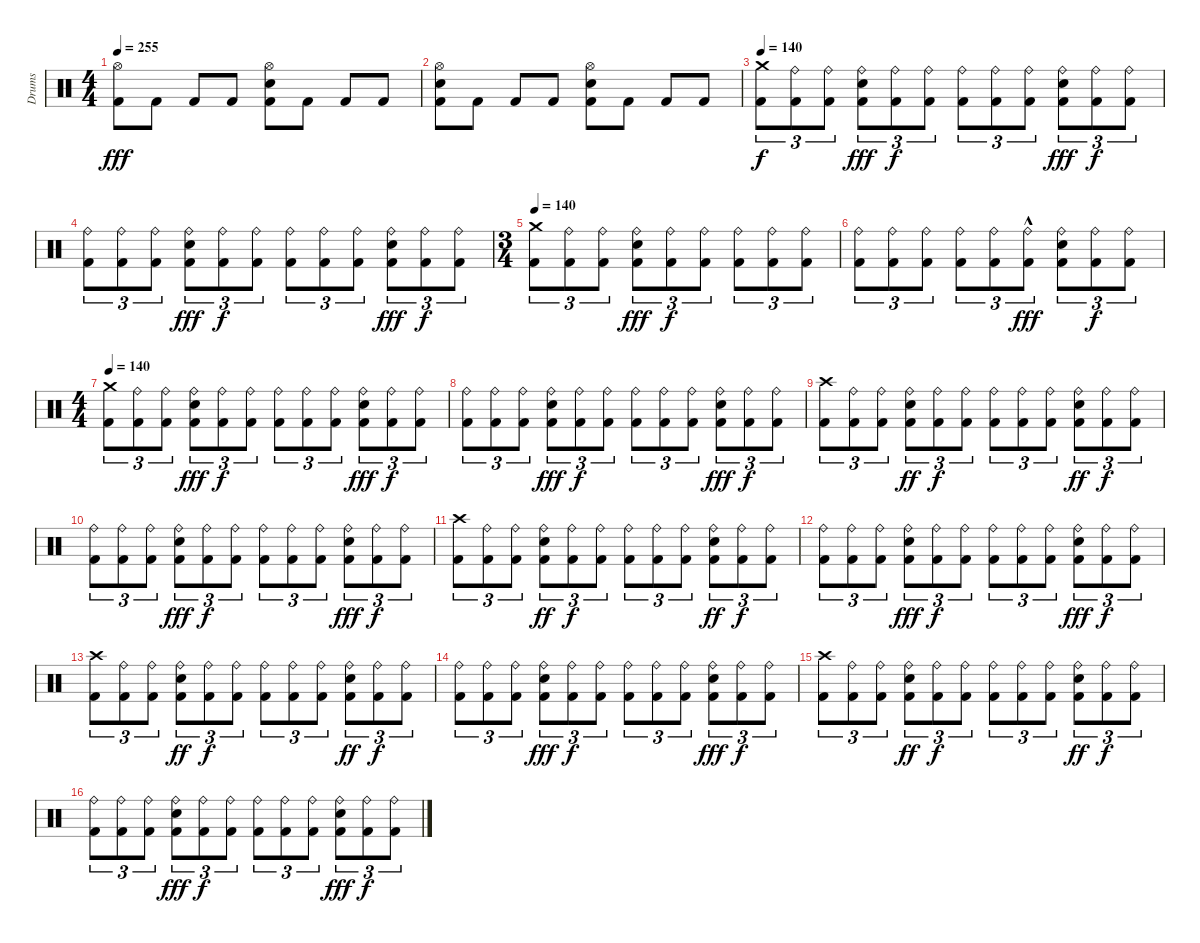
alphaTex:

\track ("Drums" "Drums") {instrument percussion}
\staff {score}
\articulation defaults
\ts (4 4)
\tempo 255
\clef neutral
\ks c
("Hi-Hat (open)" "Kick (hit) 2").8{dy fff} "Kick (hit) 2".8 "Kick (hit) 2".8 "Kick (hit) 2".8 ("Hi-Hat (open)" "Electric Snare (hit)" "Kick (hit) 2").8 "Kick (hit) 2".8 "Kick (hit) 2".8 "Kick (hit) 2".8 |
("Hi-Hat (open)" "Electric Snare (hit)" "Kick (hit) 2").8 "Kick (hit) 2".8 "Kick (hit) 2".8 "Kick (hit) 2".8 ("Hi-Hat (open)" "Electric Snare (hit)" "Kick (hit) 2").8 "Kick (hit) 2".8 "Kick (hit) 2".8 "Kick (hit) 2".8 |
\tempo 140
("Crash medium (hit)" "Kick (hit) 2").8{tu (3 2) dy f} ("Ride (bell)" "Kick (hit) 2").8{tu (3 2)} ("Ride (bell)" "Kick (hit) 2").8{tu (3 2)} ("Ride (bell)" "Electric Snare (hit)" "Kick (hit) 2").8{tu (3 2) dy fff} ("Ride (bell)" "Kick (hit) 2").8{tu (3 2) dy f} ("Ride (bell)" "Kick (hit) 2").8{tu (3 2)} ("Ride (bell)" "Kick (hit) 2").8{tu (3 2)} ("Ride (bell)" "Kick (hit) 2").8{tu (3 2)} ("Ride (bell)" "Kick (hit) 2").8{tu (3 2)} ("Ride (bell)" "Electric Snare (hit)" "Kick (hit) 2").8{tu (3 2) dy fff} ("Ride (bell)" "Kick (hit) 2").8{tu (3 2) dy f} ("Ride (bell)" "Kick (hit) 2").8{tu (3 2)} |
("Ride (bell)" "Kick (hit) 2").8{tu (3 2)} ("Ride (bell)" "Kick (hit) 2").8{tu (3 2)} ("Ride (bell)" "Kick (hit) 2").8{tu (3 2)} ("Ride (bell)" "Electric Snare (hit)" "Kick (hit) 2").8{tu (3 2) dy fff} ("Ride (bell)" "Kick (hit) 2").8{tu (3 2) dy f} ("Ride (bell)" "Kick (hit) 2").8{tu (3 2)} ("Ride (bell)" "Kick (hit) 2").8{tu (3 2)} ("Ride (bell)" "Kick (hit) 2").8{tu (3 2)} ("Ride (bell)" "Kick (hit) 2").8{tu (3 2)} ("Ride (bell)" "Electric Snare (hit)" "Kick (hit) 2").8{tu (3 2) dy fff} ("Ride (bell)" "Kick (hit) 2").8{tu (3 2) dy f} ("Ride (bell)" "Kick (hit) 2").8{tu (3 2)} |
\ts (3 4)
\tempo 140
("Crash medium (hit)" "Kick (hit) 2").8{tu (3 2)} ("Ride (bell)" "Kick (hit) 2").8{tu (3 2)} ("Ride (bell)" "Kick (hit) 2").8{tu (3 2)} ("Ride (bell)" "Electric Snare (hit)" "Kick (hit) 2").8{tu (3 2) dy fff} ("Ride (bell)" "Kick (hit) 2").8{tu (3 2) dy f} ("Ride (bell)" "Kick (hit) 2").8{tu (3 2)} ("Ride (bell)" "Kick (hit) 2").8{tu (3 2)} ("Ride (bell)" "Kick (hit) 2").8{tu (3 2)} ("Ride (bell)" "Kick (hit) 2").8{tu (3 2)} |
("Ride (bell)" "Kick (hit) 2").8{tu (3 2)} ("Ride (bell)" "Kick (hit) 2").8{tu (3 2)} ("Ride (bell)" "Kick (hit) 2").8{tu (3 2)} ("Ride (bell)" "Kick (hit) 2").8{tu (3 2)} ("Ride (bell)" "Kick (hit) 2").8{tu (3 2)} ("Ride (bell)" "Kick (hit) 2"{hac}).8{tu (3 2) dy fff} ("Ride (bell)" "Electric Snare (hit)" "Kick (hit) 2").8{tu (3 2)} ("Ride (bell)" "Kick (hit) 2").8{tu (3 2) dy f} ("Ride (bell)" "Kick (hit) 2").8{tu (3 2)} |
\ts (4 4)
\tempo 140
("Crash medium (hit)" "Kick (hit) 2").8{tu (3 2)} ("Ride (bell)" "Kick (hit) 2").8{tu (3 2)} ("Ride (bell)" "Kick (hit) 2").8{tu (3 2)} ("Ride (bell)" "Electric Snare (hit)" "Kick (hit) 2").8{tu (3 2) dy fff} ("Ride (bell)" "Kick (hit) 2").8{tu (3 2) dy f} ("Ride (bell)" "Kick (hit) 2").8{tu (3 2)} ("Ride (bell)" "Kick (hit) 2").8{tu (3 2)} ("Ride (bell)" "Kick (hit) 2").8{tu (3 2)} ("Ride (bell)" "Kick (hit) 2").8{tu (3 2)} ("Ride (bell)" "Electric Snare (hit)" "Kick (hit) 2").8{tu (3 2) dy fff} ("Ride (bell)" "Kick (hit) 2").8{tu (3 2) dy f} ("Ride (bell)" "Kick (hit) 2").8{tu (3 2)} |
("Ride (bell)" "Kick (hit) 2").8{tu (3 2)} ("Ride (bell)" "Kick (hit) 2").8{tu (3 2)} ("Ride (bell)" "Kick (hit) 2").8{tu (3 2)} ("Ride (bell)" "Electric Snare (hit)" "Kick (hit) 2").8{tu (3 2) dy fff} ("Ride (bell)" "Kick (hit) 2").8{tu (3 2) dy f} ("Ride (bell)" "Kick (hit) 2").8{tu (3 2)} ("Ride (bell)" "Kick (hit) 2").8{tu (3 2)} ("Ride (bell)" "Kick (hit) 2").8{tu (3 2)} ("Ride (bell)" "Kick (hit) 2").8{tu (3 2)} ("Ride (bell)" "Electric Snare (hit)" "Kick (hit) 2").8{tu (3 2) dy fff} ("Ride (bell)" "Kick (hit) 2").8{tu (3 2) dy f} ("Ride (bell)" "Kick (hit) 2").8{tu (3 2)} |
("Crash high (hit)" "Kick (hit) 2").8{tu (3 2)} ("Ride (bell)" "Kick (hit) 2").8{tu (3 2)} ("Ride (bell)" "Kick (hit) 2").8{tu (3 2)} ("Ride (bell)" "Electric Snare (hit)" "Kick (hit) 2").8{tu (3 2) dy ff} ("Ride (bell)" "Kick (hit) 2").8{tu (3 2) dy f} ("Ride (bell)" "Kick (hit) 2").8{tu (3 2)} ("Ride (bell)" "Kick (hit) 2").8{tu (3 2)} ("Ride (bell)" "Kick (hit) 2").8{tu (3 2)} ("Ride (bell)" "Kick (hit) 2").8{tu (3 2)} ("Ride (bell)" "Electric Snare (hit)" "Kick (hit) 2").8{tu (3 2) dy ff} ("Ride (bell)" "Kick (hit) 2").8{tu (3 2) dy f} ("Ride (bell)" "Kick (hit) 2").8{tu (3 2)} |
("Ride (bell)" "Kick (hit) 2").8{tu (3 2)} ("Ride (bell)" "Kick (hit) 2").8{tu (3 2)} ("Ride (bell)" "Kick (hit) 2").8{tu (3 2)} ("Ride (bell)" "Electric Snare (hit)" "Kick (hit) 2").8{tu (3 2) dy fff} ("Ride (bell)" "Kick (hit) 2").8{tu (3 2) dy f} ("Ride (bell)" "Kick (hit) 2").8{tu (3 2)} ("Ride (bell)" "Kick (hit) 2").8{tu (3 2)} ("Ride (bell)" "Kick (hit) 2").8{tu (3 2)} ("Ride (bell)" "Kick (hit) 2").8{tu (3 2)} ("Ride (bell)" "Electric Snare (hit)" "Kick (hit) 2").8{tu (3 2) dy fff} ("Ride (bell)" "Kick (hit) 2").8{tu (3 2) dy f} ("Ride (bell)" "Kick (hit) 2").8{tu (3 2)} |
("Crash high (hit)" "Kick (hit) 2").8{tu (3 2)} ("Ride (bell)" "Kick (hit) 2").8{tu (3 2)} ("Ride (bell)" "Kick (hit) 2").8{tu (3 2)} ("Ride (bell)" "Electric Snare (hit)" "Kick (hit) 2").8{tu (3 2) dy ff} ("Ride (bell)" "Kick (hit) 2").8{tu (3 2) dy f} ("Ride (bell)" "Kick (hit) 2").8{tu (3 2)} ("Ride (bell)" "Kick (hit) 2").8{tu (3 2)} ("Ride (bell)" "Kick (hit) 2").8{tu (3 2)} ("Ride (bell)" "Kick (hit) 2").8{tu (3 2)} ("Ride (bell)" "Electric Snare (hit)" "Kick (hit) 2").8{tu (3 2) dy ff} ("Ride (bell)" "Kick (hit) 2").8{tu (3 2) dy f} ("Ride (bell)" "Kick (hit) 2").8{tu (3 2)} |
("Ride (bell)" "Kick (hit) 2").8{tu (3 2)} ("Ride (bell)" "Kick (hit) 2").8{tu (3 2)} ("Ride (bell)" "Kick (hit) 2").8{tu (3 2)} ("Ride (bell)" "Electric Snare (hit)" "Kick (hit) 2").8{tu (3 2) dy fff} ("Ride (bell)" "Kick (hit) 2").8{tu (3 2) dy f} ("Ride (bell)" "Kick (hit) 2").8{tu (3 2)} ("Ride (bell)" "Kick (hit) 2").8{tu (3 2)} ("Ride (bell)" "Kick (hit) 2").8{tu (3 2)} ("Ride (bell)" "Kick (hit) 2").8{tu (3 2)} ("Ride (bell)" "Electric Snare (hit)" "Kick (hit) 2").8{tu (3 2) dy fff} ("Ride (bell)" "Kick (hit) 2").8{tu (3 2) dy f} ("Ride (bell)" "Kick (hit) 2").8{tu (3 2)} |
("Crash high (hit)" "Kick (hit) 2").8{tu (3 2)} ("Ride (bell)" "Kick (hit) 2").8{tu (3 2)} ("Ride (bell)" "Kick (hit) 2").8{tu (3 2)} ("Ride (bell)" "Electric Snare (hit)" "Kick (hit) 2").8{tu (3 2) dy ff} ("Ride (bell)" "Kick (hit) 2").8{tu (3 2) dy f} ("Ride (bell)" "Kick (hit) 2").8{tu (3 2)} ("Ride (bell)" "Kick (hit) 2").8{tu (3 2)} ("Ride (bell)" "Kick (hit) 2").8{tu (3 2)} ("Ride (bell)" "Kick (hit) 2").8{tu (3 2)} ("Ride (bell)" "Electric Snare (hit)" "Kick (hit) 2").8{tu (3 2) dy ff} ("Ride (bell)" "Kick (hit) 2").8{tu (3 2) dy f} ("Ride (bell)" "Kick (hit) 2").8{tu (3 2)} |
("Ride (bell)" "Kick (hit) 2").8{tu (3 2)} ("Ride (bell)" "Kick (hit) 2").8{tu (3 2)} ("Ride (bell)" "Kick (hit) 2").8{tu (3 2)} ("Ride (bell)" "Electric Snare (hit)" "Kick (hit) 2").8{tu (3 2) dy fff} ("Ride (bell)" "Kick (hit) 2").8{tu (3 2) dy f} ("Ride (bell)" "Kick (hit) 2").8{tu (3 2)} ("Ride (bell)" "Kick (hit) 2").8{tu (3 2)} ("Ride (bell)" "Kick (hit) 2").8{tu (3 2)} ("Ride (bell)" "Kick (hit) 2").8{tu (3 2)} ("Ride (bell)" "Electric Snare (hit)" "Kick (hit) 2").8{tu (3 2) dy fff} ("Ride (bell)" "Kick (hit) 2").8{tu (3 2) dy f} ("Ride (bell)" "Kick (hit) 2").8{tu (3 2)} |
("Crash high (hit)" "Kick (hit) 2").8{tu (3 2)} ("Ride (bell)" "Kick (hit) 2").8{tu (3 2)} ("Ride (bell)" "Kick (hit) 2").8{tu (3 2)} ("Ride (bell)" "Electric Snare (hit)" "Kick (hit) 2").8{tu (3 2) dy ff} ("Ride (bell)" "Kick (hit) 2").8{tu (3 2) dy f} ("Ride (bell)" "Kick (hit) 2").8{tu (3 2)} ("Ride (bell)" "Kick (hit) 2").8{tu (3 2)} ("Ride (bell)" "Kick (hit) 2").8{tu (3 2)} ("Ride (bell)" "Kick (hit) 2").8{tu (3 2)} ("Ride (bell)" "Electric Snare (hit)" "Kick (hit) 2").8{tu (3 2) dy ff} ("Ride (bell)" "Kick (hit) 2").8{tu (3 2) dy f} ("Ride (bell)" "Kick (hit) 2").8{tu (3 2)} |
("Ride (bell)" "Kick (hit) 2").8{tu (3 2)} ("Ride (bell)" "Kick (hit) 2").8{tu (3 2)} ("Ride (bell)" "Kick (hit) 2").8{tu (3 2)} ("Ride (bell)" "Electric Snare (hit)" "Kick (hit) 2").8{tu (3 2) dy fff} ("Ride (bell)" "Kick (hit) 2").8{tu (3 2) dy f} ("Ride (bell)" "Kick (hit) 2").8{tu (3 2)} ("Ride (bell)" "Kick (hit) 2").8{tu (3 2)} ("Ride (bell)" "Kick (hit) 2").8{tu (3 2)} ("Ride (bell)" "Kick (hit) 2").8{tu (3 2)} ("Ride (bell)" "Electric Snare (hit)" "Kick (hit) 2").8{tu (3 2) dy fff} ("Ride (bell)" "Kick (hit) 2").8{tu (3 2) dy f} ("Ride (bell)" "Kick (hit) 2").8{tu (3 2)}
